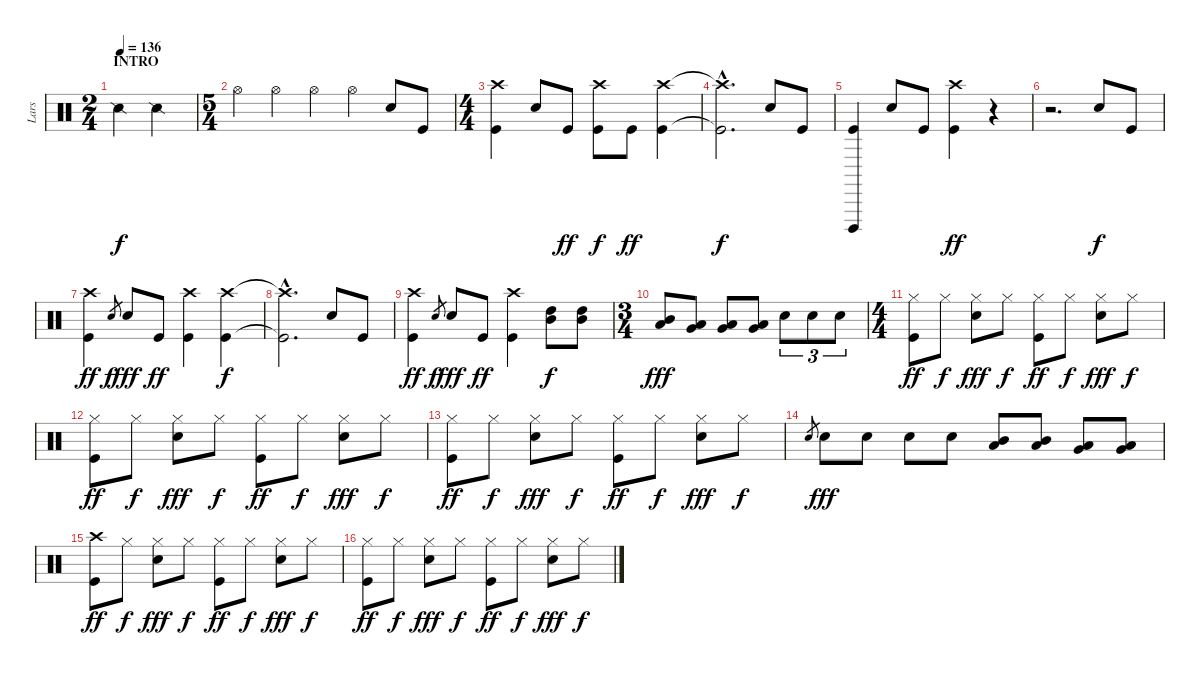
\track ("Lars" "Lars") {instrument percussion}
\staff {score}
\articulation defaults
\ts (2 4)
\section ("" "INTRO")
\tempo 136
\clef neutral
\ks c "Snare (side stick) 2".4{dy f} "Snare (side stick) 2".4
|
\ts (5 4)
"Hi-Hat (open)".4 "Hi-Hat (open)".4 "Hi-Hat (open)".4 "Hi-Hat (open)".4 "Electric Snare (hit)".8 "Kick (hit)".8 |
\ts (4 4)
("Crash high (hit)" "Kick (hit)").4 "Electric Snare (hit)".8 "Kick (hit)".8{dy ff} ("Crash high (hit)" "Kick (hit)").8{dy f} "Kick (hit)".8{dy ff} ("Crash high (hit)" "Kick (hit)").4 |
("Crash high (hit)"{hac t} "Kick (hit)"{hac t}).2{d dy f} "Electric Snare (hit)".8 "Kick (hit)".8 |
("Cuica (open)" "Kick (hit)").4 "Electric Snare (hit)".8 "Kick (hit)".8 ("Crash high (hit)" "Kick (hit)").4{dy ff} r.4 |
r.2{d} "Electric Snare (hit)".8{dy f} "Kick (hit)".8 |
("Crash high (hit)" "Kick (hit)").4{dy ff} "Electric Snare (hit)".8{gr dy f} "Electric Snare (hit)".8{dy fff} "Kick (hit)".8{dy ff} ("Crash high (hit)" "Kick (hit)").4 ("Crash high (hit)" "Kick (hit)").4{dy f} |
("Crash high (hit)"{hac t} "Kick (hit)"{hac t}).2{d} "Electric Snare (hit)".8 "Kick (hit)".8 |
("Crash high (hit)" "Kick (hit)").4{dy ff} "Electric Snare (hit)".8{gr dy f} "Electric Snare (hit)".8{dy fff} "Kick (hit)".8{dy ff} ("Crash high (hit)" "Kick (hit)").4 ("High Tom (hit)" "Mid Tom (hit)").8{dy f} ("High Tom (hit)" "Mid Tom (hit)").8 |
\ts (3 4)
("Mid Tom (hit)" "Low Tom (hit)").8{dy fff} ("Low Tom (hit)" "Very Low Tom (hit)").8 ("Low Tom (hit)" "Very Low Tom (hit)").8 ("Very Low Tom (hit)" "Low Floor Tom (hit)").8 "Electric Snare (hit)".8{tu (3 2)} "Electric Snare (hit)".8{tu (3 2)} "Electric Snare (hit)".8{tu (3 2)} |
\ts (4 4)
("Hi-Hat (closed)" "Kick (hit)").8{dy ff} "Hi-Hat (closed)".8{dy f} ("Hi-Hat (closed)" "Electric Snare (hit)").8{dy fff} "Hi-Hat (closed)".8{dy f} ("Hi-Hat (closed)" "Kick (hit)").8{dy ff} "Hi-Hat (closed)".8{dy f} ("Hi-Hat (closed)" "Electric Snare (hit)").8{dy fff} "Hi-Hat (closed)".8{dy f} |
("Hi-Hat (closed)" "Kick (hit)").8{dy ff} "Hi-Hat (closed)".8{dy f} ("Hi-Hat (closed)" "Electric Snare (hit)").8{dy fff} "Hi-Hat (closed)".8{dy f} ("Hi-Hat (closed)" "Kick (hit)").8{dy ff} "Hi-Hat (closed)".8{dy f} ("Hi-Hat (closed)" "Electric Snare (hit)").8{dy fff} "Hi-Hat (closed)".8{dy f} |
("Hi-Hat (closed)" "Kick (hit)").8{dy ff} "Hi-Hat (closed)".8{dy f} ("Hi-Hat (closed)" "Electric Snare (hit)").8{dy fff} "Hi-Hat (closed)".8{dy f} ("Hi-Hat (closed)" "Kick (hit)").8{dy ff} "Hi-Hat (closed)".8{dy f} ("Hi-Hat (closed)" "Electric Snare (hit)").8{dy fff} "Hi-Hat (closed)".8{dy f} |
"Electric Snare (hit)".8{gr} "Electric Snare (hit)".8{dy fff} "Electric Snare (hit)".8 "Electric Snare (hit)".8 "Electric Snare (hit)".8 ("Mid Tom (hit)" "Low Tom (hit)").8 ("Mid Tom (hit)" "Low Tom (hit)").8 ("Low Tom (hit)" "Very Low Tom (hit)").8 ("Low Tom (hit)" "Very Low Tom (hit)").8 |
("Crash high (hit)" "Kick (hit)").8{dy ff} "Hi-Hat (closed)".8{dy f} ("Hi-Hat (closed)" "Electric Snare (hit)").8{dy fff} "Hi-Hat (closed)".8{dy f} ("Hi-Hat (closed)" "Kick (hit)").8{dy ff} "Hi-Hat (closed)".8{dy f} ("Hi-Hat (closed)" "Electric Snare (hit)").8{dy fff} "Hi-Hat (closed)".8{dy f} |
("Hi-Hat (closed)" "Kick (hit)").8{dy ff} "Hi-Hat (closed)".8{dy f} ("Hi-Hat (closed)" "Electric Snare (hit)").8{dy fff} "Hi-Hat (closed)".8{dy f} ("Hi-Hat (closed)" "Kick (hit)").8{dy ff} "Hi-Hat (closed)".8{dy f} ("Hi-Hat (closed)" "Electric Snare (hit)").8{dy fff} "Hi-Hat (closed)".8{dy f}
